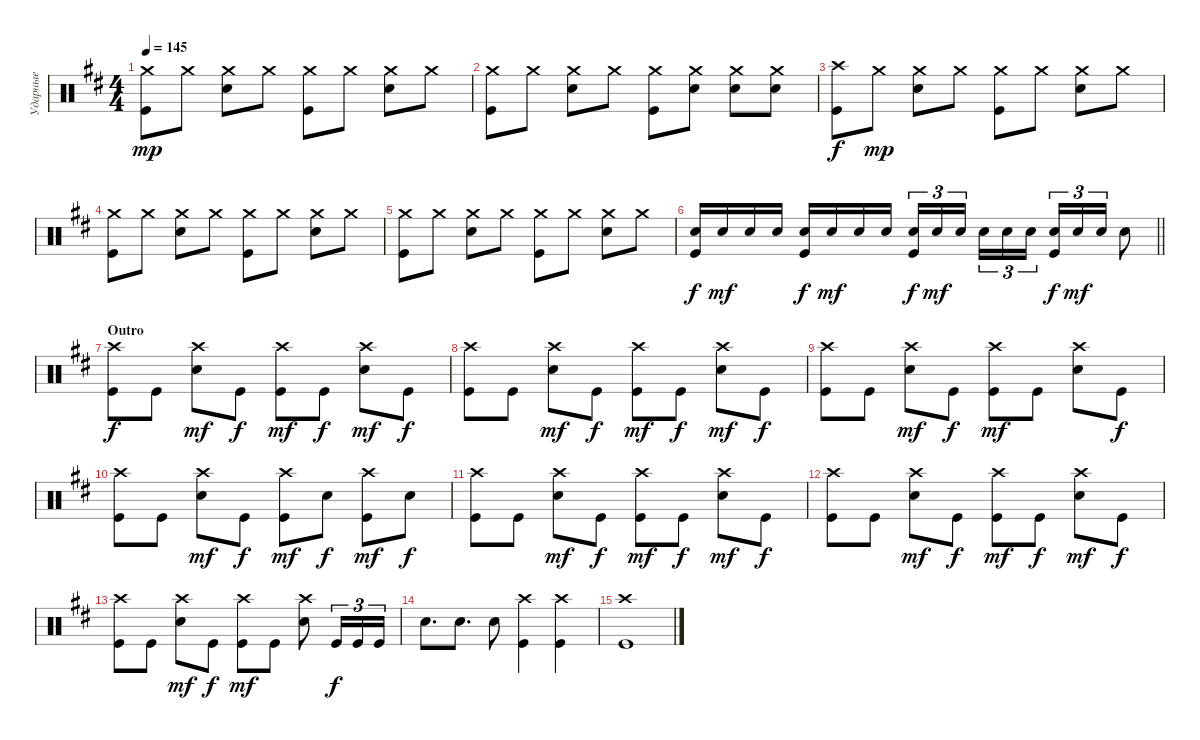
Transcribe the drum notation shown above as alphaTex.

\track ("Ударные" "Ударные") {instrument percussion}
\staff {score}
\articulation defaults
\ts (4 4)
\tempo 145
\clef neutral
\ks bminor
("Kick (hit)" "Crash medium (hit)").8{dy mp} "Crash medium (hit)".8 ("Snare (hit) 2" "Crash medium (hit)").8 "Crash medium (hit)".8 ("Kick (hit)" "Crash medium (hit)").8 "Crash medium (hit)".8 ("Snare (hit) 2" "Crash medium (hit)").8 "Crash medium (hit)".8 |
("Kick (hit)" "Crash medium (hit)").8 "Crash medium (hit)".8 ("Snare (hit) 2" "Crash medium (hit)").8 "Crash medium (hit)".8 ("Kick (hit)" "Crash medium (hit)").8 ("Snare (hit) 2" "Crash medium (hit)").8 ("Snare (hit) 2" "Crash medium (hit)").8 ("Crash medium (hit)" "Snare (hit) 2").8 |
("Kick (hit)" "Crash high (hit)").8{dy f} "Crash medium (hit)".8{dy mp} ("Snare (hit) 2" "Crash medium (hit)").8 "Crash medium (hit)".8 ("Kick (hit)" "Crash medium (hit)").8 "Crash medium (hit)".8 ("Snare (hit) 2" "Crash medium (hit)").8 "Crash medium (hit)".8 |
("Kick (hit)" "Crash medium (hit)").8 "Crash medium (hit)".8 ("Snare (hit) 2" "Crash medium (hit)").8 "Crash medium (hit)".8 ("Kick (hit)" "Crash medium (hit)").8 "Crash medium (hit)".8 ("Snare (hit) 2" "Crash medium (hit)").8 "Crash medium (hit)".8 |
("Kick (hit)" "Crash medium (hit)").8 "Crash medium (hit)".8 ("Snare (hit) 2" "Crash medium (hit)").8 "Crash medium (hit)".8 ("Kick (hit)" "Crash medium (hit)").8 "Crash medium (hit)".8 ("Snare (hit) 2" "Crash medium (hit)").8 "Crash medium (hit)".8 |
\barLineRight lightlight
("Snare (hit) 2" "Kick (hit)").16{dy f} "Snare (hit) 2".16{dy mf} "Snare (hit) 2".16 "Snare (hit) 2".16 ("Snare (hit) 2" "Kick (hit)").16{dy f} "Snare (hit) 2".16{dy mf} "Snare (hit) 2".16 "Snare (hit) 2".16 ("Snare (hit) 2" "Kick (hit)").16{tu (3 2) dy f} "Snare (hit) 2".16{tu (3 2) dy mf} "Snare (hit) 2".16{tu (3 2) beam splitsecondary} "Snare (hit) 2".16{tu (3 2)} "Snare (hit) 2".16{tu (3 2)} "Snare (hit) 2".16{tu (3 2)} ("Snare (hit) 2" "Kick (hit)").16{tu (3 2) dy f} "Snare (hit) 2".16{tu (3 2) dy mf} "Snare (hit) 2".16{tu (3 2)} "Snare (hit) 2".8 |
\section ("" "Outro")
("Kick (hit)" "Crash high (hit)").8{dy f} "Kick (hit)".8 ("Snare (hit) 2" "Crash high (hit)").8{dy mf} "Kick (hit)".8{dy f} ("Kick (hit)" "Crash high (hit)").8{dy mf} "Kick (hit)".8{dy f} ("Snare (hit) 2" "Crash high (hit)").8{dy mf} "Kick (hit)".8{dy f} |
("Kick (hit)" "Crash high (hit)").8 "Kick (hit)".8 ("Snare (hit) 2" "Crash high (hit)").8{dy mf} "Kick (hit)".8{dy f} ("Kick (hit)" "Crash high (hit)").8{dy mf} "Kick (hit)".8{dy f} ("Snare (hit) 2" "Crash high (hit)").8{dy mf} "Kick (hit)".8{dy f} |
("Kick (hit)" "Crash high (hit)").8 "Kick (hit)".8 ("Snare (hit) 2" "Crash high (hit)").8{dy mf} "Kick (hit)".8{dy f} ("Kick (hit)" "Crash high (hit)").8{dy mf} "Kick (hit)".8 ("Snare (hit) 2" "Crash high (hit)").8 "Kick (hit)".8{dy f} |
("Kick (hit)" "Crash high (hit)").8 "Kick (hit)".8 ("Snare (hit) 2" "Crash high (hit)").8{dy mf} "Kick (hit)".8{dy f} ("Kick (hit)" "Crash high (hit)").8{dy mf} "Snare (hit) 2".8{dy f} ("Kick (hit)" "Crash high (hit)").8{dy mf} "Snare (hit) 2".8{dy f} |
("Kick (hit)" "Crash high (hit)").8 "Kick (hit)".8 ("Snare (hit) 2" "Crash high (hit)").8{dy mf} "Kick (hit)".8{dy f} ("Kick (hit)" "Crash high (hit)").8{dy mf} "Kick (hit)".8{dy f} ("Snare (hit) 2" "Crash high (hit)").8{dy mf} "Kick (hit)".8{dy f} |
("Kick (hit)" "Crash high (hit)").8 "Kick (hit)".8 ("Snare (hit) 2" "Crash high (hit)").8{dy mf} "Kick (hit)".8{dy f} ("Kick (hit)" "Crash high (hit)").8{dy mf} "Kick (hit)".8{dy f} ("Snare (hit) 2" "Crash high (hit)").8{dy mf} "Kick (hit)".8{dy f} |
("Kick (hit)" "Crash high (hit)").8 "Kick (hit)".8 ("Snare (hit) 2" "Crash high (hit)").8{dy mf} "Kick (hit)".8{dy f} ("Kick (hit)" "Crash high (hit)").8{dy mf} "Kick (hit)".8 ("Snare (hit) 2" "Crash high (hit)").8 "Kick (hit)".16{tu (3 2) dy f} "Kick (hit)".16{tu (3 2)} "Kick (hit)".16{tu (3 2)} |
"Snare (hit) 2".8{d} "Snare (hit) 2".8{d} "Snare (hit) 2".8 ("Kick (hit)" "Crash high (hit)").4 ("Kick (hit)" "Crash high (hit)").4 |
("Kick (hit)" "Crash high (hit)").1
